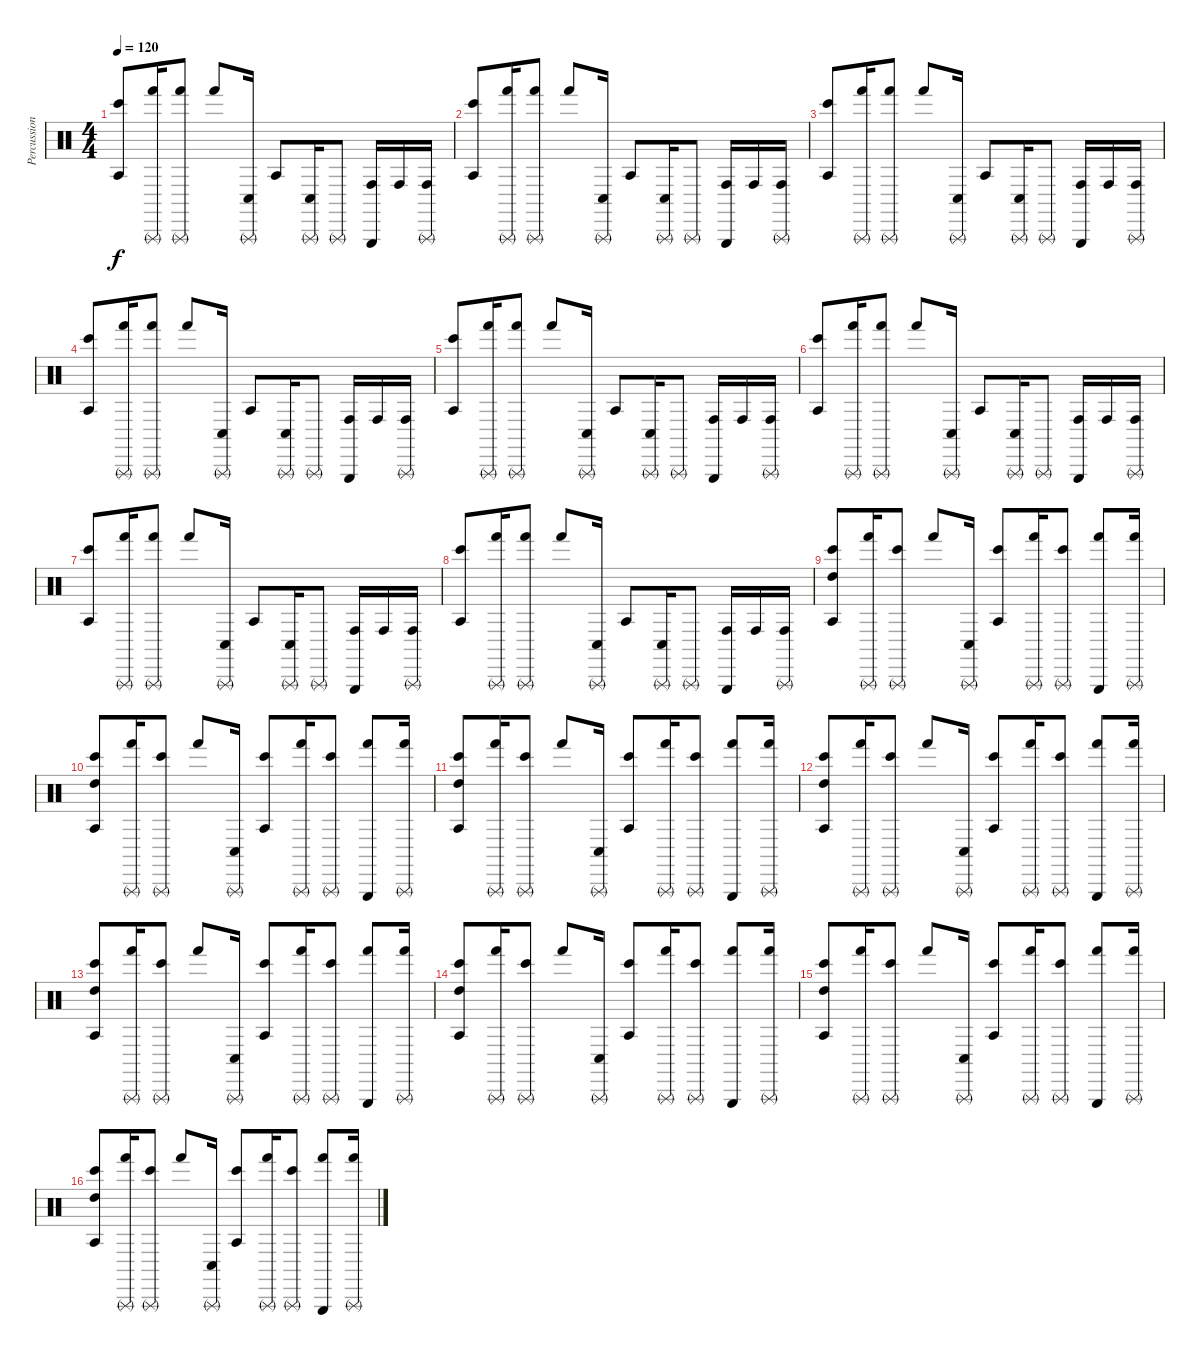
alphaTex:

\track ("Percussion" "Percussion") {instrument percussion}
\staff {score}
\articulation defaults
\ts (4 4)
\tempo 120
\clef neutral
\ks c
("Agogo tow (hit)" "Bongo High (hit)").8{dy f} ("Triangle (rnute)" "Hand (hit)").16 ("Triangle (rnute)" "Hand (hit)").8 "Hand (hit)".8 ("Triangle (rnute)" "Conga low (hit)").16 "Agogo tow (hit)".8 ("Triangle (rnute)" "Conga low (hit)").16 "Triangle (rnute)".8 ("Triangle (hit)" "Conga high (hit)").16 "Conga high (hit)".16 ("Triangle (rnute)" "Conga high (hit)").16 |
("Agogo tow (hit)" "Bongo High (hit)").8 ("Triangle (rnute)" "Hand (hit)").16 ("Triangle (rnute)" "Hand (hit)").8 "Hand (hit)".8 ("Triangle (rnute)" "Conga low (hit)").16 "Agogo tow (hit)".8 ("Triangle (rnute)" "Conga low (hit)").16 "Triangle (rnute)".8 ("Triangle (hit)" "Conga high (hit)").16 "Conga high (hit)".16 ("Triangle (rnute)" "Conga high (hit)").16 |
("Agogo tow (hit)" "Bongo High (hit)").8 ("Triangle (rnute)" "Hand (hit)").16 ("Triangle (rnute)" "Hand (hit)").8 "Hand (hit)".8 ("Triangle (rnute)" "Conga low (hit)").16 "Agogo tow (hit)".8 ("Triangle (rnute)" "Conga low (hit)").16 "Triangle (rnute)".8 ("Triangle (hit)" "Conga high (hit)").16 "Conga high (hit)".16 ("Triangle (rnute)" "Conga high (hit)").16 |
("Agogo tow (hit)" "Bongo High (hit)").8 ("Triangle (rnute)" "Hand (hit)").16 ("Triangle (rnute)" "Hand (hit)").8 "Hand (hit)".8 ("Triangle (rnute)" "Conga low (hit)").16 "Agogo tow (hit)".8 ("Triangle (rnute)" "Conga low (hit)").16 "Triangle (rnute)".8 ("Triangle (hit)" "Conga high (hit)").16 "Conga high (hit)".16 ("Triangle (rnute)" "Conga high (hit)").16 |
("Agogo tow (hit)" "Bongo High (hit)").8 ("Triangle (rnute)" "Hand (hit)").16 ("Triangle (rnute)" "Hand (hit)").8 "Hand (hit)".8 ("Triangle (rnute)" "Conga low (hit)").16 "Agogo tow (hit)".8 ("Triangle (rnute)" "Conga low (hit)").16 "Triangle (rnute)".8 ("Triangle (hit)" "Conga high (hit)").16 "Conga high (hit)".16 ("Triangle (rnute)" "Conga high (hit)").16 |
("Agogo tow (hit)" "Bongo High (hit)").8 ("Triangle (rnute)" "Hand (hit)").16 ("Triangle (rnute)" "Hand (hit)").8 "Hand (hit)".8 ("Triangle (rnute)" "Conga low (hit)").16 "Agogo tow (hit)".8 ("Triangle (rnute)" "Conga low (hit)").16 "Triangle (rnute)".8 ("Triangle (hit)" "Conga high (hit)").16 "Conga high (hit)".16 ("Triangle (rnute)" "Conga high (hit)").16 |
("Agogo tow (hit)" "Bongo High (hit)").8 ("Triangle (rnute)" "Hand (hit)").16 ("Triangle (rnute)" "Hand (hit)").8 "Hand (hit)".8 ("Triangle (rnute)" "Conga low (hit)").16 "Agogo tow (hit)".8 ("Triangle (rnute)" "Conga low (hit)").16 "Triangle (rnute)".8 ("Triangle (hit)" "Conga high (hit)").16 "Conga high (hit)".16 ("Triangle (rnute)" "Conga high (hit)").16 |
("Agogo tow (hit)" "Bongo High (hit)").8 ("Triangle (rnute)" "Hand (hit)").16 ("Triangle (rnute)" "Hand (hit)").8 "Hand (hit)".8 ("Triangle (rnute)" "Conga low (hit)").16 "Agogo tow (hit)".8 ("Triangle (rnute)" "Conga low (hit)").16 "Triangle (rnute)".8 ("Triangle (hit)" "Conga high (hit)").16 "Conga high (hit)".16 ("Triangle (rnute)" "Conga high (hit)").16 |
("Agogo tow (hit)" "Bongo High (hit)" "High Tom (hit)").8 ("Triangle (rnute)" "Hand (hit)").16 ("Triangle (rnute)" "Bongo High (hit)").8 "Hand (hit)".8 ("Triangle (rnute)" "Conga low (hit)").16 ("Agogo tow (hit)" "Bongo High (hit)").8 ("Triangle (rnute)" "Hand (hit)").16 ("Triangle (rnute)" "Bongo High (hit)").8 ("Triangle (hit)" "Hand (hit)").8 ("Triangle (rnute)" "Hand (hit)").16 |
("Agogo tow (hit)" "Bongo High (hit)" "High Tom (hit)").8 ("Triangle (rnute)" "Hand (hit)").16 ("Triangle (rnute)" "Bongo High (hit)").8 "Hand (hit)".8 ("Triangle (rnute)" "Conga low (hit)").16 ("Agogo tow (hit)" "Bongo High (hit)").8 ("Triangle (rnute)" "Hand (hit)").16 ("Triangle (rnute)" "Bongo High (hit)").8 ("Triangle (hit)" "Hand (hit)").8 ("Triangle (rnute)" "Hand (hit)").16 |
("Agogo tow (hit)" "Bongo High (hit)" "High Tom (hit)").8 ("Triangle (rnute)" "Hand (hit)").16 ("Triangle (rnute)" "Bongo High (hit)").8 "Hand (hit)".8 ("Triangle (rnute)" "Conga low (hit)").16 ("Agogo tow (hit)" "Bongo High (hit)").8 ("Triangle (rnute)" "Hand (hit)").16 ("Triangle (rnute)" "Bongo High (hit)").8 ("Triangle (hit)" "Hand (hit)").8 ("Triangle (rnute)" "Hand (hit)").16 |
("Agogo tow (hit)" "Bongo High (hit)" "High Tom (hit)").8 ("Triangle (rnute)" "Hand (hit)").16 ("Triangle (rnute)" "Bongo High (hit)").8 "Hand (hit)".8 ("Triangle (rnute)" "Conga low (hit)").16 ("Agogo tow (hit)" "Bongo High (hit)").8 ("Triangle (rnute)" "Hand (hit)").16 ("Triangle (rnute)" "Bongo High (hit)").8 ("Triangle (hit)" "Hand (hit)").8 ("Triangle (rnute)" "Hand (hit)").16 |
("Agogo tow (hit)" "Bongo High (hit)" "High Tom (hit)").8 ("Triangle (rnute)" "Hand (hit)").16 ("Triangle (rnute)" "Bongo High (hit)").8 "Hand (hit)".8 ("Triangle (rnute)" "Conga low (hit)").16 ("Agogo tow (hit)" "Bongo High (hit)").8 ("Triangle (rnute)" "Hand (hit)").16 ("Triangle (rnute)" "Bongo High (hit)").8 ("Triangle (hit)" "Hand (hit)").8 ("Triangle (rnute)" "Hand (hit)").16 |
("Agogo tow (hit)" "Bongo High (hit)" "High Tom (hit)").8 ("Triangle (rnute)" "Hand (hit)").16 ("Triangle (rnute)" "Bongo High (hit)").8 "Hand (hit)".8 ("Triangle (rnute)" "Conga low (hit)").16 ("Agogo tow (hit)" "Bongo High (hit)").8 ("Triangle (rnute)" "Hand (hit)").16 ("Triangle (rnute)" "Bongo High (hit)").8 ("Triangle (hit)" "Hand (hit)").8 ("Triangle (rnute)" "Hand (hit)").16 |
("Agogo tow (hit)" "Bongo High (hit)" "High Tom (hit)").8 ("Triangle (rnute)" "Hand (hit)").16 ("Triangle (rnute)" "Bongo High (hit)").8 "Hand (hit)".8 ("Triangle (rnute)" "Conga low (hit)").16 ("Agogo tow (hit)" "Bongo High (hit)").8 ("Triangle (rnute)" "Hand (hit)").16 ("Triangle (rnute)" "Bongo High (hit)").8 ("Triangle (hit)" "Hand (hit)").8 ("Triangle (rnute)" "Hand (hit)").16 |
("Agogo tow (hit)" "Bongo High (hit)" "High Tom (hit)").8 ("Triangle (rnute)" "Hand (hit)").16 ("Triangle (rnute)" "Bongo High (hit)").8 "Hand (hit)".8 ("Triangle (rnute)" "Conga low (hit)").16 ("Agogo tow (hit)" "Bongo High (hit)").8 ("Triangle (rnute)" "Hand (hit)").16 ("Triangle (rnute)" "Bongo High (hit)").8 ("Triangle (hit)" "Hand (hit)").8 ("Triangle (rnute)" "Hand (hit)").16
